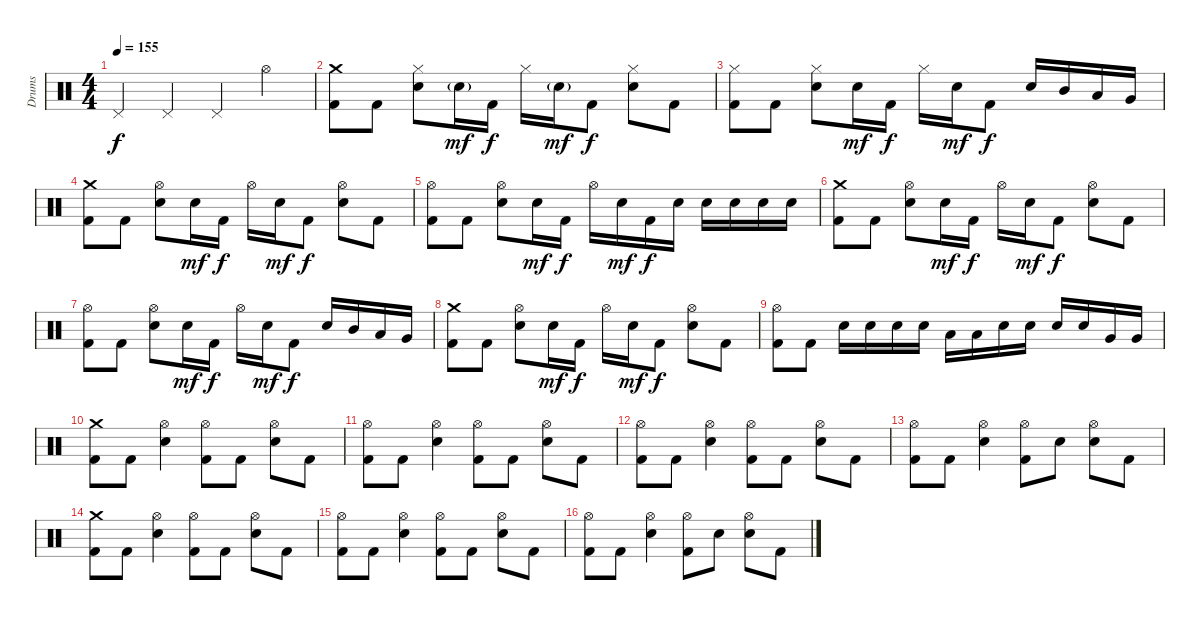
\track ("Drums" "Drums") {instrument percussion}
\staff {score}
\articulation defaults
\ts (4 4)
\tempo 155
\clef neutral
\ks c "Pedal Hi-Hat (hit)".4{dy f} "Pedal Hi-Hat (hit)".4 "Pedal Hi-Hat (hit)".4 "Hi-Hat (open)".4
|
("Crash medium (hit)" "Kick (hit) 2").8 "Kick (hit) 2".8 ("Hi-Hat (closed)" "Electric Snare (hit)").8 "Electric Snare (hit)"{g}.16{dy mf} "Kick (hit) 2".16{dy f} "Hi-Hat (closed)".16 "Electric Snare (hit)"{g}.16{dy mf} "Kick (hit) 2".8{dy f} ("Hi-Hat (closed)" "Electric Snare (hit)").8 "Kick (hit) 2".8 |
("Hi-Hat (closed)" "Kick (hit) 2").8 "Kick (hit) 2".8 ("Hi-Hat (closed)" "Electric Snare (hit)").8 "Electric Snare (hit)".16{dy mf} "Kick (hit) 2".16{dy f} "Hi-Hat (closed)".16 "Electric Snare (hit)".16{dy mf} "Kick (hit) 2".8{dy f} "Electric Snare (hit)".16 "Mid Tom (hit)".16 "Low Tom (hit)".16 "Very Low Tom (hit)".16 |
("Crash medium (hit)" "Kick (hit) 2").8 "Kick (hit) 2".8 ("Hi-Hat (open)" "Electric Snare (hit)").8 "Electric Snare (hit)".16{dy mf} "Kick (hit) 2".16{dy f} "Hi-Hat (open)".16 "Electric Snare (hit)".16{dy mf} "Kick (hit) 2".8{dy f} ("Hi-Hat (open)" "Electric Snare (hit)").8 "Kick (hit) 2".8 |
("Hi-Hat (open)" "Kick (hit) 2").8 "Kick (hit) 2".8 ("Hi-Hat (open)" "Electric Snare (hit)").8 "Electric Snare (hit)".16{dy mf} "Kick (hit) 2".16{dy f} "Hi-Hat (open)".16 "Electric Snare (hit)".16{dy mf} "Kick (hit) 2".16{dy f} "Electric Snare (hit)".16 "Electric Snare (hit)".16 "Electric Snare (hit)".16 "Electric Snare (hit)".16 "Electric Snare (hit)".16 |
("Crash medium (hit)" "Kick (hit) 2").8 "Kick (hit) 2".8 ("Hi-Hat (open)" "Electric Snare (hit)").8 "Electric Snare (hit)".16{dy mf} "Kick (hit) 2".16{dy f} "Hi-Hat (open)".16 "Electric Snare (hit)".16{dy mf} "Kick (hit) 2".8{dy f} ("Hi-Hat (open)" "Electric Snare (hit)").8 "Kick (hit) 2".8 |
("Hi-Hat (open)" "Kick (hit) 2").8 "Kick (hit) 2".8 ("Hi-Hat (open)" "Electric Snare (hit)").8 "Electric Snare (hit)".16{dy mf} "Kick (hit) 2".16{dy f} "Hi-Hat (open)".16 "Electric Snare (hit)".16{dy mf} "Kick (hit) 2".8{dy f} "Electric Snare (hit)".16 "Mid Tom (hit)".16 "Low Tom (hit)".16 "Very Low Tom (hit)".16 |
("Crash medium (hit)" "Kick (hit) 2").8 "Kick (hit) 2".8 ("Hi-Hat (open)" "Electric Snare (hit)").8 "Electric Snare (hit)".16{dy mf} "Kick (hit) 2".16{dy f} "Hi-Hat (open)".16 "Electric Snare (hit)".16{dy mf} "Kick (hit) 2".8{dy f} ("Hi-Hat (open)" "Electric Snare (hit)").8 "Kick (hit) 2".8 |
("Hi-Hat (open)" "Kick (hit) 2").8 "Kick (hit) 2".8 "Electric Snare (hit)".16 "Electric Snare (hit)".16 "Electric Snare (hit)".16 "Electric Snare (hit)".16 "Low Tom (hit)".16 "Low Tom (hit)".16 "Electric Snare (hit)".16 "Electric Snare (hit)".16 "Electric Snare (hit)".16 "Electric Snare (hit)".16 "Very Low Tom (hit)".16 "Very Low Tom (hit)".16 |
("Crash medium (hit)" "Kick (hit) 2").8 "Kick (hit) 2".8 ("Hi-Hat (open)" "Electric Snare (hit)").4 ("Hi-Hat (open)" "Kick (hit) 2").8 "Kick (hit) 2".8 ("Hi-Hat (open)" "Electric Snare (hit)").8 "Kick (hit) 2".8 |
("Hi-Hat (open)" "Kick (hit) 2").8 "Kick (hit) 2".8 ("Hi-Hat (open)" "Electric Snare (hit)").4 ("Hi-Hat (open)" "Kick (hit) 2").8 "Kick (hit) 2".8 ("Hi-Hat (open)" "Electric Snare (hit)").8 "Kick (hit) 2".8 |
("Hi-Hat (open)" "Kick (hit) 2").8 "Kick (hit) 2".8 ("Hi-Hat (open)" "Electric Snare (hit)").4 ("Hi-Hat (open)" "Kick (hit) 2").8 "Kick (hit) 2".8 ("Hi-Hat (open)" "Electric Snare (hit)").8 "Kick (hit) 2".8 |
("Hi-Hat (open)" "Kick (hit) 2").8 "Kick (hit) 2".8 ("Hi-Hat (open)" "Electric Snare (hit)").4 ("Hi-Hat (open)" "Kick (hit) 2").8 "Electric Snare (hit)".8 ("Hi-Hat (open)" "Electric Snare (hit)").8 "Kick (hit) 2".8 |
("Crash medium (hit)" "Kick (hit) 2").8 "Kick (hit) 2".8 ("Hi-Hat (open)" "Electric Snare (hit)").4 ("Hi-Hat (open)" "Kick (hit) 2").8 "Kick (hit) 2".8 ("Hi-Hat (open)" "Electric Snare (hit)").8 "Kick (hit) 2".8 |
("Hi-Hat (open)" "Kick (hit) 2").8 "Kick (hit) 2".8 ("Hi-Hat (open)" "Electric Snare (hit)").4 ("Hi-Hat (open)" "Kick (hit) 2").8 "Kick (hit) 2".8 ("Hi-Hat (open)" "Electric Snare (hit)").8 "Kick (hit) 2".8 |
("Hi-Hat (open)" "Kick (hit) 2").8 "Kick (hit) 2".8 ("Hi-Hat (open)" "Electric Snare (hit)").4 ("Hi-Hat (open)" "Kick (hit) 2").8 "Electric Snare (hit)".8 ("Hi-Hat (open)" "Electric Snare (hit)").8 "Kick (hit) 2".8
